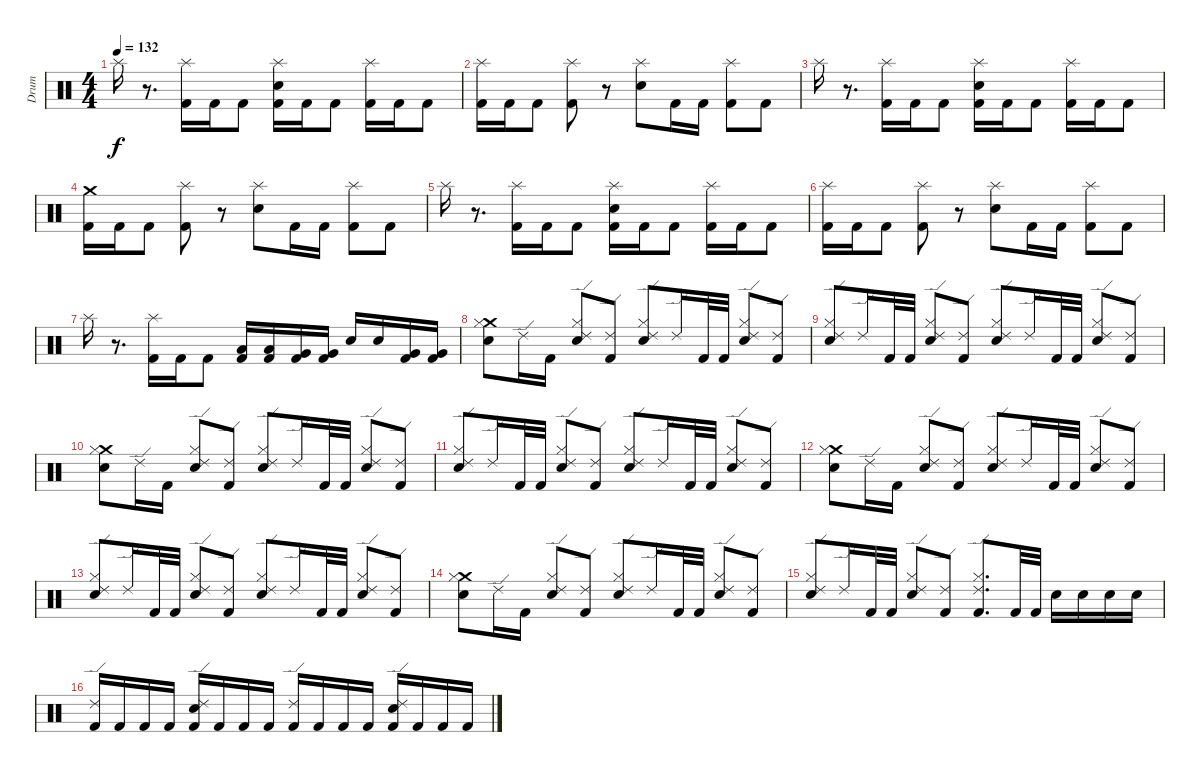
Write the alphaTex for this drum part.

\track (" Drum" " Drum") {instrument percussion}
\staff {score}
\articulation defaults
\ts (4 4)
\tempo 132
\clef neutral
\ks c "Splash (hit)".16{dy f}
r.8{d} ("Splash (hit)" "Kick (hit) 2").16 "Kick (hit) 2".16 "Kick (hit) 2".8 ("Splash (hit)" "Electric Snare (hit)" "Kick (hit) 2").16 "Kick (hit) 2".16 "Kick (hit) 2".8 ("Splash (hit)" "Kick (hit) 2").16 "Kick (hit) 2".16 "Kick (hit) 2".8 |
("Splash (hit)" "Kick (hit) 2").16 "Kick (hit) 2".16 "Kick (hit) 2".8 ("Splash (hit)" "Kick (hit) 2").8 r.8 ("Splash (hit)" "Electric Snare (hit)").8 "Kick (hit) 2".16 "Kick (hit) 2".16 ("Splash (hit)" "Kick (hit) 2").8 "Kick (hit) 2".8 |
"Splash (hit)".16 r.8{d} ("Splash (hit)" "Kick (hit) 2").16 "Kick (hit) 2".16 "Kick (hit) 2".8 ("Splash (hit)" "Electric Snare (hit)" "Kick (hit) 2").16 "Kick (hit) 2".16 "Kick (hit) 2".8 ("Splash (hit)" "Kick (hit) 2").16 "Kick (hit) 2".16 "Kick (hit) 2".8 |
("Crash medium (hit)" "Kick (hit) 2").16 "Kick (hit) 2".16 "Kick (hit) 2".8 ("Splash (hit)" "Kick (hit) 2").8 r.8 ("Splash (hit)" "Electric Snare (hit)").8 "Kick (hit) 2".16 "Kick (hit) 2".16 ("Splash (hit)" "Kick (hit) 2").8 "Kick (hit) 2".8 |
"Splash (hit)".16 r.8{d} ("Splash (hit)" "Kick (hit) 2").16 "Kick (hit) 2".16 "Kick (hit) 2".8 ("Splash (hit)" "Electric Snare (hit)" "Kick (hit) 2").16 "Kick (hit) 2".16 "Kick (hit) 2".8 ("Splash (hit)" "Kick (hit) 2").16 "Kick (hit) 2".16 "Kick (hit) 2".8 |
("Splash (hit)" "Kick (hit) 2").16 "Kick (hit) 2".16 "Kick (hit) 2".8 ("Splash (hit)" "Kick (hit) 2").8 r.8 ("Splash (hit)" "Electric Snare (hit)").8 "Kick (hit) 2".16 "Kick (hit) 2".16 ("Splash (hit)" "Kick (hit) 2").8 "Kick (hit) 2".8 |
"Splash (hit)".16 r.8{d} ("Splash (hit)" "Kick (hit) 2").16 "Kick (hit) 2".16 "Kick (hit) 2".8 ("Low Tom (hit)" "Kick (hit) 2").16 ("Low Tom (hit)" "Kick (hit) 2").16 ("Very Low Tom (hit)" "Kick (hit) 2").16 ("Very Low Tom (hit)" "Kick (hit) 2").16 "Electric Snare (hit)".16 "Electric Snare (hit)".16 ("Very Low Tom (hit)" "Kick (hit) 2").16 ("Very Low Tom (hit)" "Kick (hit) 2").16 |
("Crash medium (hit)" "Hi-Hat (closed)" "Electric Snare (hit)").8 "Ride (edge) 2".16 "Kick (hit) 2".16 ("Ride (edge) 2" "Hi-Hat (closed)" "Electric Snare (hit)").8 ("Kick (hit) 2" "Ride (edge) 2").8 ("Hi-Hat (closed)" "Electric Snare (hit)" "Ride (edge) 2").8 "Ride (edge) 2".16 "Kick (hit) 2".32 "Kick (hit) 2".32 ("Hi-Hat (closed)" "Electric Snare (hit)" "Ride (edge) 2").8 ("Kick (hit) 2" "Ride (edge) 2").8 |
("Ride (edge) 2" "Hi-Hat (closed)" "Electric Snare (hit)").8 "Ride (edge) 2".16 "Kick (hit) 2".32 "Kick (hit) 2".32 ("Ride (edge) 2" "Hi-Hat (closed)" "Electric Snare (hit)").8 ("Kick (hit) 2" "Ride (edge) 2").8 ("Hi-Hat (closed)" "Electric Snare (hit)" "Ride (edge) 2").8 "Ride (edge) 2".16 "Kick (hit) 2".32 "Kick (hit) 2".32 ("Hi-Hat (closed)" "Electric Snare (hit)" "Ride (edge) 2").8 ("Kick (hit) 2" "Ride (edge) 2").8 |
("Crash medium (hit)" "Hi-Hat (closed)" "Electric Snare (hit)").8 "Ride (edge) 2".16 "Kick (hit) 2".16 ("Ride (edge) 2" "Hi-Hat (closed)" "Electric Snare (hit)").8 ("Kick (hit) 2" "Ride (edge) 2").8 ("Hi-Hat (closed)" "Electric Snare (hit)" "Ride (edge) 2").8 "Ride (edge) 2".16 "Kick (hit) 2".32 "Kick (hit) 2".32 ("Hi-Hat (closed)" "Electric Snare (hit)" "Ride (edge) 2").8 ("Kick (hit) 2" "Ride (edge) 2").8 |
("Ride (edge) 2" "Hi-Hat (closed)" "Electric Snare (hit)").8 "Ride (edge) 2".16 "Kick (hit) 2".32 "Kick (hit) 2".32 ("Ride (edge) 2" "Hi-Hat (closed)" "Electric Snare (hit)").8 ("Kick (hit) 2" "Ride (edge) 2").8 ("Hi-Hat (closed)" "Electric Snare (hit)" "Ride (edge) 2").8 "Ride (edge) 2".16 "Kick (hit) 2".32 "Kick (hit) 2".32 ("Hi-Hat (closed)" "Electric Snare (hit)" "Ride (edge) 2").8 ("Kick (hit) 2" "Ride (edge) 2").8 |
("Crash medium (hit)" "Hi-Hat (closed)" "Electric Snare (hit)").8 "Ride (edge) 2".16 "Kick (hit) 2".16 ("Ride (edge) 2" "Hi-Hat (closed)" "Electric Snare (hit)").8 ("Kick (hit) 2" "Ride (edge) 2").8 ("Hi-Hat (closed)" "Electric Snare (hit)" "Ride (edge) 2").8 "Ride (edge) 2".16 "Kick (hit) 2".32 "Kick (hit) 2".32 ("Hi-Hat (closed)" "Electric Snare (hit)" "Ride (edge) 2").8 ("Kick (hit) 2" "Ride (edge) 2").8 |
("Ride (edge) 2" "Hi-Hat (closed)" "Electric Snare (hit)").8 "Ride (edge) 2".16 "Kick (hit) 2".32 "Kick (hit) 2".32 ("Ride (edge) 2" "Hi-Hat (closed)" "Electric Snare (hit)").8 ("Kick (hit) 2" "Ride (edge) 2").8 ("Hi-Hat (closed)" "Electric Snare (hit)" "Ride (edge) 2").8 "Ride (edge) 2".16 "Kick (hit) 2".32 "Kick (hit) 2".32 ("Hi-Hat (closed)" "Electric Snare (hit)" "Ride (edge) 2").8 ("Kick (hit) 2" "Ride (edge) 2").8 |
("Crash medium (hit)" "Hi-Hat (closed)" "Electric Snare (hit)").8 "Ride (edge) 2".16 "Kick (hit) 2".16 ("Ride (edge) 2" "Hi-Hat (closed)" "Electric Snare (hit)").8 ("Kick (hit) 2" "Ride (edge) 2").8 ("Hi-Hat (closed)" "Electric Snare (hit)" "Ride (edge) 2").8 "Ride (edge) 2".16 "Kick (hit) 2".32 "Kick (hit) 2".32 ("Hi-Hat (closed)" "Electric Snare (hit)" "Ride (edge) 2").8 ("Kick (hit) 2" "Ride (edge) 2").8 |
("Ride (edge) 2" "Hi-Hat (closed)" "Electric Snare (hit)").8 "Ride (edge) 2".16 "Kick (hit) 2".32 "Kick (hit) 2".32 ("Ride (edge) 2" "Hi-Hat (closed)" "Electric Snare (hit)").8 ("Kick (hit) 2" "Ride (edge) 2").8 ("Hi-Hat (closed)" "Ride (edge) 2" "Kick (hit) 2").8{d} "Kick (hit) 2".32 "Kick (hit) 2".32 "Electric Snare (hit)".16 "Electric Snare (hit)".16 "Electric Snare (hit)".16 "Electric Snare (hit)".16 |
("Ride (edge) 2" "Kick (hit) 2").16 "Kick (hit) 2".16 "Kick (hit) 2".16 "Kick (hit) 2".16 ("Ride (edge) 2" "Electric Snare (hit)" "Kick (hit) 2").16 "Kick (hit) 2".16 "Kick (hit) 2".16 "Kick (hit) 2".16 ("Ride (edge) 2" "Kick (hit) 2").16 "Kick (hit) 2".16 "Kick (hit) 2".16 "Kick (hit) 2".16 ("Ride (edge) 2" "Electric Snare (hit)" "Kick (hit) 2").16 "Kick (hit) 2".16 "Kick (hit) 2".16 "Kick (hit) 2".16
